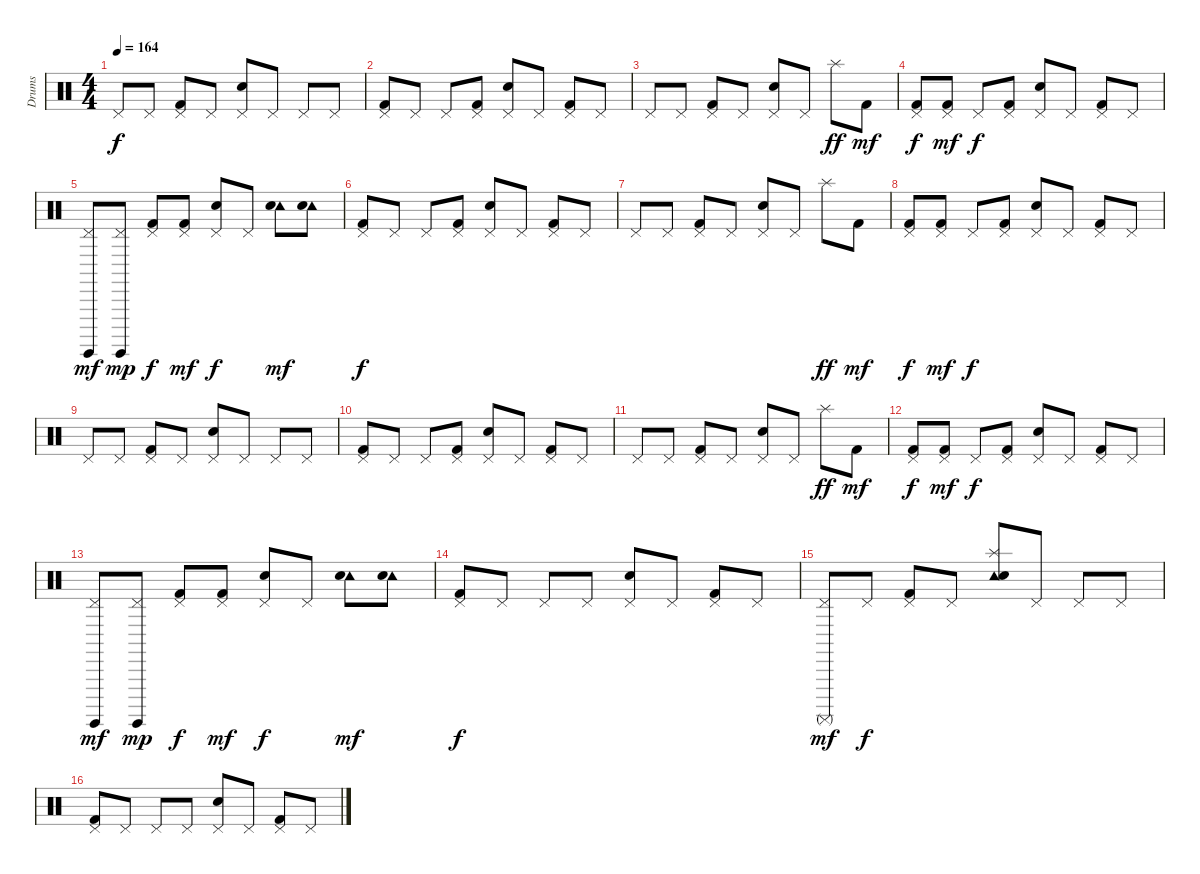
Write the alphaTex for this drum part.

\track ("Drums" "Drums") {instrument percussion}
\staff {score}
\articulation defaults
\ts (4 4)
\tempo 164
\clef neutral
\ks c "Pedal Hi-Hat (hit)".8{dy f} "Pedal Hi-Hat (hit)".8
("Pedal Hi-Hat (hit)" "Kick (hit) 2").8 "Pedal Hi-Hat (hit)".8 ("Pedal Hi-Hat (hit)" "Snare (hit) 2").8 "Pedal Hi-Hat (hit)".8 "Pedal Hi-Hat (hit)".8 "Pedal Hi-Hat (hit)".8 |
("Pedal Hi-Hat (hit)" "Kick (hit) 2").8 "Pedal Hi-Hat (hit)".8 "Pedal Hi-Hat (hit)".8 ("Pedal Hi-Hat (hit)" "Kick (hit) 2").8 ("Pedal Hi-Hat (hit)" "Snare (hit) 2").8 "Pedal Hi-Hat (hit)".8 ("Pedal Hi-Hat (hit)" "Kick (hit) 2").8 "Pedal Hi-Hat (hit)".8 |
"Pedal Hi-Hat (hit)".8 "Pedal Hi-Hat (hit)".8 ("Pedal Hi-Hat (hit)" "Kick (hit) 2").8 "Pedal Hi-Hat (hit)".8 ("Pedal Hi-Hat (hit)" "Snare (hit) 2").8 "Pedal Hi-Hat (hit)".8 "Splash (hit)".8{dy ff} "Kick (hit) 2".8{dy mf} |
("Pedal Hi-Hat (hit)" "Kick (hit) 2").8{dy f} ("Pedal Hi-Hat (hit)" "Kick (hit) 2").8{dy mf} "Pedal Hi-Hat (hit)".8{dy f} ("Pedal Hi-Hat (hit)" "Kick (hit) 2").8 ("Pedal Hi-Hat (hit)" "Snare (hit) 2").8 "Pedal Hi-Hat (hit)".8 ("Pedal Hi-Hat (hit)" "Kick (hit) 2").8 "Pedal Hi-Hat (hit)".8 |
("Pedal Hi-Hat (hit)" "Surdo (hit)").8{dy mf} ("Pedal Hi-Hat (hit)" "Surdo (hit)").8{dy mp} ("Pedal Hi-Hat (hit)" "Kick (hit) 2").8{dy f} ("Pedal Hi-Hat (hit)" "Kick (hit) 2").8{dy mf} ("Pedal Hi-Hat (hit)" "Snare (hit) 2").8{dy f} "Pedal Hi-Hat (hit)".8 ("Tambourine (hit)" "Snare (hit) 2").8{dy mf} ("Tambourine (hit)" "Snare (hit) 2").8 |
("Pedal Hi-Hat (hit)" "Kick (hit) 2").8{dy f} "Pedal Hi-Hat (hit)".8 "Pedal Hi-Hat (hit)".8 ("Pedal Hi-Hat (hit)" "Kick (hit) 2").8 ("Pedal Hi-Hat (hit)" "Snare (hit) 2").8 "Pedal Hi-Hat (hit)".8 ("Pedal Hi-Hat (hit)" "Kick (hit) 2").8 "Pedal Hi-Hat (hit)".8 |
"Pedal Hi-Hat (hit)".8 "Pedal Hi-Hat (hit)".8 ("Pedal Hi-Hat (hit)" "Kick (hit) 2").8 "Pedal Hi-Hat (hit)".8 ("Pedal Hi-Hat (hit)" "Snare (hit) 2").8 "Pedal Hi-Hat (hit)".8 "Splash (hit)".8{dy ff} "Kick (hit) 2".8{dy mf} |
("Pedal Hi-Hat (hit)" "Kick (hit) 2").8{dy f} ("Pedal Hi-Hat (hit)" "Kick (hit) 2").8{dy mf} "Pedal Hi-Hat (hit)".8{dy f} ("Pedal Hi-Hat (hit)" "Kick (hit) 2").8 ("Pedal Hi-Hat (hit)" "Snare (hit) 2").8 "Pedal Hi-Hat (hit)".8 ("Pedal Hi-Hat (hit)" "Kick (hit) 2").8 "Pedal Hi-Hat (hit)".8 |
"Pedal Hi-Hat (hit)".8 "Pedal Hi-Hat (hit)".8 ("Pedal Hi-Hat (hit)" "Kick (hit) 2").8 "Pedal Hi-Hat (hit)".8 ("Pedal Hi-Hat (hit)" "Snare (hit) 2").8 "Pedal Hi-Hat (hit)".8 "Pedal Hi-Hat (hit)".8 "Pedal Hi-Hat (hit)".8 |
("Pedal Hi-Hat (hit)" "Kick (hit) 2").8 "Pedal Hi-Hat (hit)".8 "Pedal Hi-Hat (hit)".8 ("Pedal Hi-Hat (hit)" "Kick (hit) 2").8 ("Pedal Hi-Hat (hit)" "Snare (hit) 2").8 "Pedal Hi-Hat (hit)".8 ("Pedal Hi-Hat (hit)" "Kick (hit) 2").8 "Pedal Hi-Hat (hit)".8 |
"Pedal Hi-Hat (hit)".8 "Pedal Hi-Hat (hit)".8 ("Pedal Hi-Hat (hit)" "Kick (hit) 2").8 "Pedal Hi-Hat (hit)".8 ("Pedal Hi-Hat (hit)" "Snare (hit) 2").8 "Pedal Hi-Hat (hit)".8 "Splash (hit)".8{dy ff} "Kick (hit) 2".8{dy mf} |
("Pedal Hi-Hat (hit)" "Kick (hit) 2").8{dy f} ("Pedal Hi-Hat (hit)" "Kick (hit) 2").8{dy mf} "Pedal Hi-Hat (hit)".8{dy f} ("Pedal Hi-Hat (hit)" "Kick (hit) 2").8 ("Pedal Hi-Hat (hit)" "Snare (hit) 2").8 "Pedal Hi-Hat (hit)".8 ("Pedal Hi-Hat (hit)" "Kick (hit) 2").8 "Pedal Hi-Hat (hit)".8 |
("Pedal Hi-Hat (hit)" "Surdo (hit)").8{dy mf} ("Pedal Hi-Hat (hit)" "Surdo (hit)").8{dy mp} ("Pedal Hi-Hat (hit)" "Kick (hit) 2").8{dy f} ("Pedal Hi-Hat (hit)" "Kick (hit) 2").8{dy mf} ("Pedal Hi-Hat (hit)" "Snare (hit) 2").8{dy f} "Pedal Hi-Hat (hit)".8 ("Tambourine (hit)" "Snare (hit) 2").8{dy mf} ("Tambourine (hit)" "Snare (hit) 2").8 |
("Pedal Hi-Hat (hit)" "Kick (hit) 2").8{dy f} "Pedal Hi-Hat (hit)".8 "Pedal Hi-Hat (hit)".8 "Pedal Hi-Hat (hit)".8 ("Pedal Hi-Hat (hit)" "Snare (hit) 2").8 "Pedal Hi-Hat (hit)".8 ("Pedal Hi-Hat (hit)" "Kick (hit) 2").8 "Pedal Hi-Hat (hit)".8 |
("Pedal Hi-Hat (hit)" "Surdo (mute)").8{dy mf} "Pedal Hi-Hat (hit)".8{dy f} ("Pedal Hi-Hat (hit)" "Kick (hit) 2").8 "Pedal Hi-Hat (hit)".8 ("Tambourine (hit)" "Splash (hit)" "Snare (hit) 2").8 "Pedal Hi-Hat (hit)".8 "Pedal Hi-Hat (hit)".8 "Pedal Hi-Hat (hit)".8 |
("Pedal Hi-Hat (hit)" "Kick (hit) 2").8 "Pedal Hi-Hat (hit)".8 "Pedal Hi-Hat (hit)".8 "Pedal Hi-Hat (hit)".8 ("Pedal Hi-Hat (hit)" "Snare (hit) 2").8 "Pedal Hi-Hat (hit)".8 ("Pedal Hi-Hat (hit)" "Kick (hit) 2").8 "Pedal Hi-Hat (hit)".8
